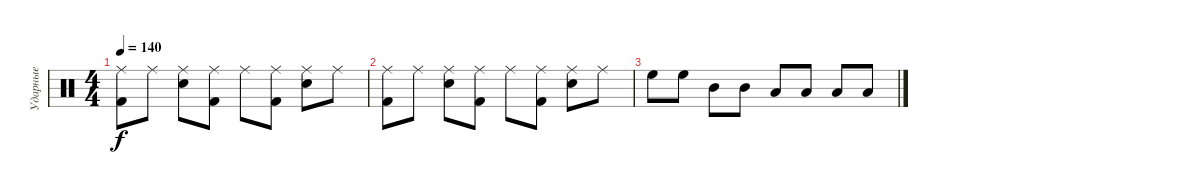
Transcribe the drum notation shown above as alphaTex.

\track ("Ударные" "Ударные") {instrument percussion}
\staff {score}
\articulation defaults
\ts (4 4)
\tempo 140
\clef neutral
\ks c
("Ride (middle)" "Kick (hit) 2").8{dy f} "Ride (middle)".8 ("Ride (middle)" "Snare (hit) 2").8 ("Ride (middle)" "Kick (hit) 2").8 "Ride (middle)".8 ("Ride (middle)" "Kick (hit) 2").8 ("Ride (middle)" "Snare (hit) 2").8 "Ride (middle)".8 |
("Ride (middle)" "Kick (hit) 2").8 "Ride (middle)".8 ("Ride (middle)" "Snare (hit) 2").8 ("Ride (middle)" "Kick (hit) 2").8 "Ride (middle)".8 ("Ride (middle)" "Kick (hit) 2").8 ("Ride (middle)" "Snare (hit) 2").8 "Ride (middle)".8 |
"High Floor Tom (hit)".8 "High Floor Tom (hit)".8 "Mid Tom (hit)".8 "Mid Tom (hit)".8 "Low Tom (hit)".8 "Low Tom (hit)".8 "Low Floor Tom (hit)".8 "Low Floor Tom (hit)".8
